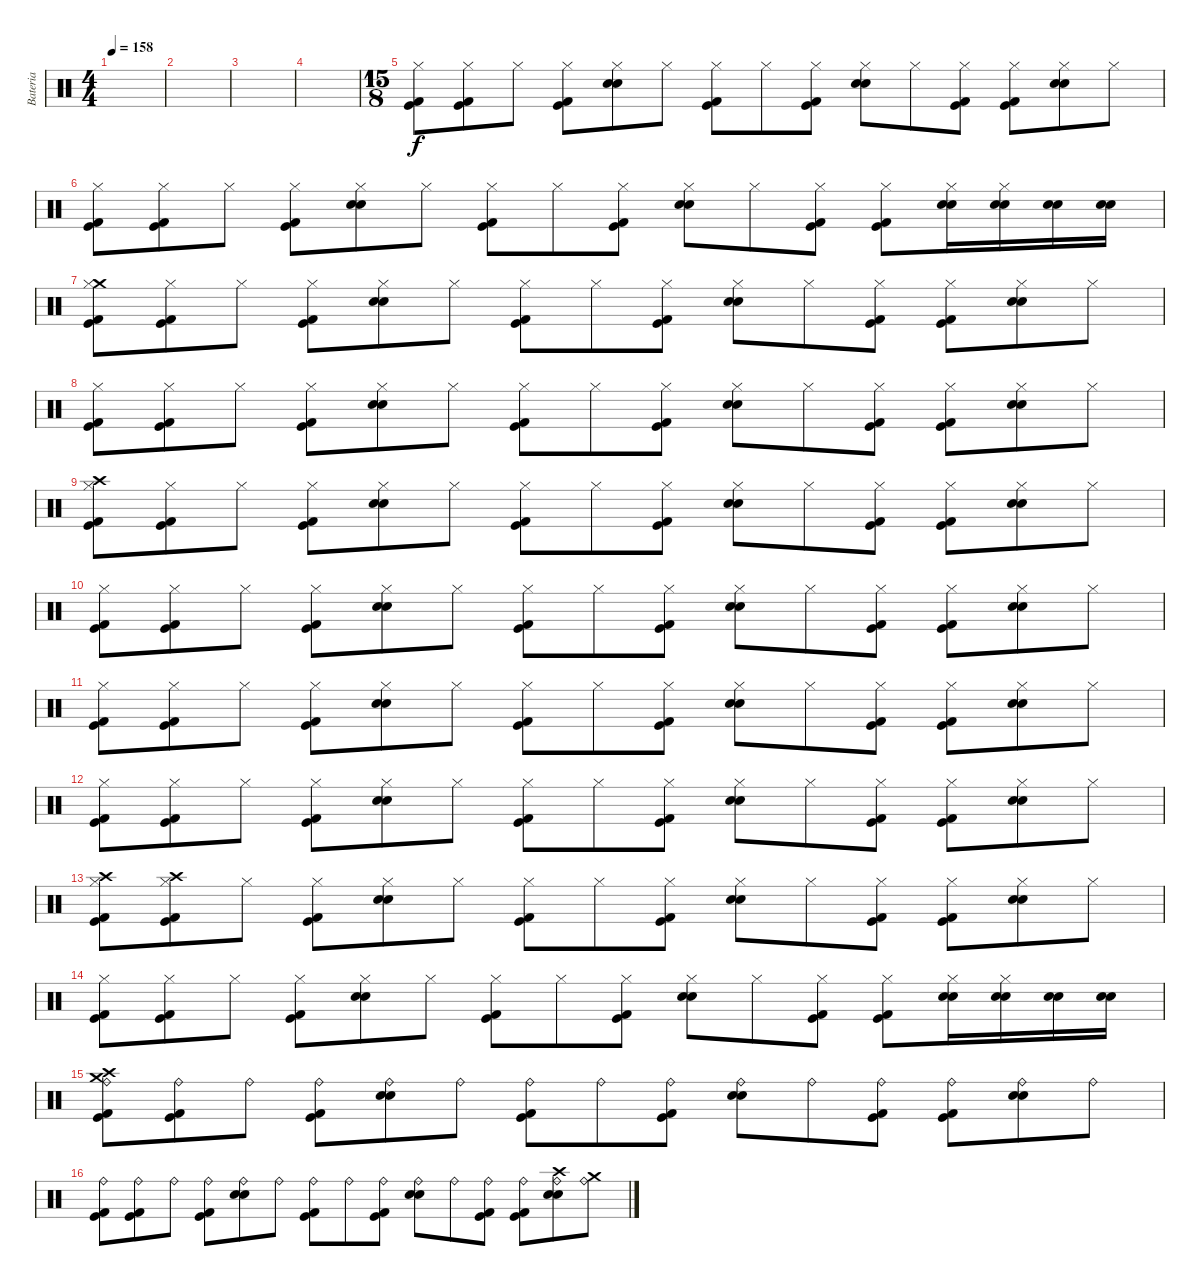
\track ("Bateria" "Bateria") {instrument percussion}
\staff {score}
\articulation defaults
\ts (4 4)
\tempo 158
\clef neutral
\ks c
|
|
|
|
\ts (15 8)
("Hi-Hat (closed)" "Kick (hit) 2" "Kick (hit)").8 ("Hi-Hat (closed)" "Kick (hit) 2" "Kick (hit)").8 "Hi-Hat (closed)".8 ("Hi-Hat (closed)" "Kick (hit) 2" "Kick (hit)").8 ("Hi-Hat (closed)" "Electric Snare (hit)" "Snare (hit) 2").8 "Hi-Hat (closed)".8 ("Hi-Hat (closed)" "Kick (hit) 2" "Kick (hit)").8 "Hi-Hat (closed)".8 ("Hi-Hat (closed)" "Kick (hit) 2" "Kick (hit)").8 ("Hi-Hat (closed)" "Electric Snare (hit)" "Snare (hit) 2").8 "Hi-Hat (closed)".8 ("Hi-Hat (closed)" "Kick (hit) 2" "Kick (hit)").8 ("Hi-Hat (closed)" "Kick (hit) 2" "Kick (hit)").8 ("Hi-Hat (closed)" "Electric Snare (hit)" "Snare (hit) 2").8 "Hi-Hat (closed)".8 |
("Hi-Hat (closed)" "Kick (hit) 2" "Kick (hit)").8 ("Hi-Hat (closed)" "Kick (hit) 2" "Kick (hit)").8 "Hi-Hat (closed)".8 ("Hi-Hat (closed)" "Kick (hit) 2" "Kick (hit)").8 ("Hi-Hat (closed)" "Electric Snare (hit)" "Snare (hit) 2").8 "Hi-Hat (closed)".8 ("Hi-Hat (closed)" "Kick (hit) 2" "Kick (hit)").8 "Hi-Hat (closed)".8 ("Hi-Hat (closed)" "Kick (hit) 2" "Kick (hit)").8 ("Hi-Hat (closed)" "Electric Snare (hit)" "Snare (hit) 2").8 "Hi-Hat (closed)".8 ("Hi-Hat (closed)" "Kick (hit) 2" "Kick (hit)").8 ("Hi-Hat (closed)" "Kick (hit) 2" "Kick (hit)").8 ("Hi-Hat (closed)" "Electric Snare (hit)" "Snare (hit) 2").16 ("Hi-Hat (closed)" "Electric Snare (hit)" "Snare (hit) 2").16 ("Electric Snare (hit)" "Snare (hit) 2").16 ("Electric Snare (hit)" "Snare (hit) 2").16 |
("Crash medium (hit)" "Hi-Hat (closed)" "Kick (hit) 2" "Kick (hit)").8 ("Hi-Hat (closed)" "Kick (hit) 2" "Kick (hit)").8 "Hi-Hat (closed)".8 ("Hi-Hat (closed)" "Kick (hit) 2" "Kick (hit)").8 ("Hi-Hat (closed)" "Electric Snare (hit)" "Snare (hit) 2").8 "Hi-Hat (closed)".8 ("Hi-Hat (closed)" "Kick (hit) 2" "Kick (hit)").8 "Hi-Hat (closed)".8 ("Hi-Hat (closed)" "Kick (hit) 2" "Kick (hit)").8 ("Hi-Hat (closed)" "Electric Snare (hit)" "Snare (hit) 2").8 "Hi-Hat (closed)".8 ("Hi-Hat (closed)" "Kick (hit) 2" "Kick (hit)").8 ("Hi-Hat (closed)" "Kick (hit) 2" "Kick (hit)").8 ("Hi-Hat (closed)" "Electric Snare (hit)" "Snare (hit) 2").8 "Hi-Hat (closed)".8 |
("Hi-Hat (closed)" "Kick (hit) 2" "Kick (hit)").8 ("Hi-Hat (closed)" "Kick (hit) 2" "Kick (hit)").8 "Hi-Hat (closed)".8 ("Hi-Hat (closed)" "Kick (hit) 2" "Kick (hit)").8 ("Hi-Hat (closed)" "Electric Snare (hit)" "Snare (hit) 2").8 "Hi-Hat (closed)".8 ("Hi-Hat (closed)" "Kick (hit) 2" "Kick (hit)").8 "Hi-Hat (closed)".8 ("Hi-Hat (closed)" "Kick (hit) 2" "Kick (hit)").8 ("Hi-Hat (closed)" "Electric Snare (hit)" "Snare (hit) 2").8 "Hi-Hat (closed)".8 ("Hi-Hat (closed)" "Kick (hit) 2" "Kick (hit)").8 ("Hi-Hat (closed)" "Kick (hit) 2" "Kick (hit)").8 ("Hi-Hat (closed)" "Electric Snare (hit)" "Snare (hit) 2").8 "Hi-Hat (closed)".8 |
("Crash high (hit)" "Hi-Hat (closed)" "Kick (hit) 2" "Kick (hit)").8 ("Hi-Hat (closed)" "Kick (hit) 2" "Kick (hit)").8 "Hi-Hat (closed)".8 ("Hi-Hat (closed)" "Kick (hit) 2" "Kick (hit)").8 ("Hi-Hat (closed)" "Electric Snare (hit)" "Snare (hit) 2").8 "Hi-Hat (closed)".8 ("Hi-Hat (closed)" "Kick (hit) 2" "Kick (hit)").8 "Hi-Hat (closed)".8 ("Hi-Hat (closed)" "Kick (hit) 2" "Kick (hit)").8 ("Hi-Hat (closed)" "Electric Snare (hit)" "Snare (hit) 2").8 "Hi-Hat (closed)".8 ("Hi-Hat (closed)" "Kick (hit) 2" "Kick (hit)").8 ("Hi-Hat (closed)" "Kick (hit) 2" "Kick (hit)").8 ("Hi-Hat (closed)" "Electric Snare (hit)" "Snare (hit) 2").8 "Hi-Hat (closed)".8 |
("Hi-Hat (closed)" "Kick (hit) 2" "Kick (hit)").8 ("Hi-Hat (closed)" "Kick (hit) 2" "Kick (hit)").8 "Hi-Hat (closed)".8 ("Hi-Hat (closed)" "Kick (hit) 2" "Kick (hit)").8 ("Hi-Hat (closed)" "Electric Snare (hit)" "Snare (hit) 2").8 "Hi-Hat (closed)".8 ("Hi-Hat (closed)" "Kick (hit) 2" "Kick (hit)").8 "Hi-Hat (closed)".8 ("Hi-Hat (closed)" "Kick (hit) 2" "Kick (hit)").8 ("Hi-Hat (closed)" "Electric Snare (hit)" "Snare (hit) 2").8 "Hi-Hat (closed)".8 ("Hi-Hat (closed)" "Kick (hit) 2" "Kick (hit)").8 ("Hi-Hat (closed)" "Kick (hit) 2" "Kick (hit)").8 ("Hi-Hat (closed)" "Electric Snare (hit)" "Snare (hit) 2").8 "Hi-Hat (closed)".8 |
("Hi-Hat (closed)" "Kick (hit) 2" "Kick (hit)").8 ("Hi-Hat (closed)" "Kick (hit) 2" "Kick (hit)").8 "Hi-Hat (closed)".8 ("Hi-Hat (closed)" "Kick (hit) 2" "Kick (hit)").8 ("Hi-Hat (closed)" "Electric Snare (hit)" "Snare (hit) 2").8 "Hi-Hat (closed)".8 ("Hi-Hat (closed)" "Kick (hit) 2" "Kick (hit)").8 "Hi-Hat (closed)".8 ("Hi-Hat (closed)" "Kick (hit) 2" "Kick (hit)").8 ("Hi-Hat (closed)" "Electric Snare (hit)" "Snare (hit) 2").8 "Hi-Hat (closed)".8 ("Hi-Hat (closed)" "Kick (hit) 2" "Kick (hit)").8 ("Hi-Hat (closed)" "Kick (hit) 2" "Kick (hit)").8 ("Hi-Hat (closed)" "Electric Snare (hit)" "Snare (hit) 2").8 "Hi-Hat (closed)".8 |
("Hi-Hat (closed)" "Kick (hit) 2" "Kick (hit)").8 ("Hi-Hat (closed)" "Kick (hit) 2" "Kick (hit)").8 "Hi-Hat (closed)".8 ("Hi-Hat (closed)" "Kick (hit) 2" "Kick (hit)").8 ("Hi-Hat (closed)" "Electric Snare (hit)" "Snare (hit) 2").8 "Hi-Hat (closed)".8 ("Hi-Hat (closed)" "Kick (hit) 2" "Kick (hit)").8 "Hi-Hat (closed)".8 ("Hi-Hat (closed)" "Kick (hit) 2" "Kick (hit)").8 ("Hi-Hat (closed)" "Electric Snare (hit)" "Snare (hit) 2").8 "Hi-Hat (closed)".8 ("Hi-Hat (closed)" "Kick (hit) 2" "Kick (hit)").8 ("Hi-Hat (closed)" "Kick (hit) 2" "Kick (hit)").8 ("Hi-Hat (closed)" "Electric Snare (hit)" "Snare (hit) 2").8 "Hi-Hat (closed)".8 |
("Crash high (hit)" "Hi-Hat (closed)" "Kick (hit) 2" "Kick (hit)").8 ("Crash high (hit)" "Hi-Hat (closed)" "Kick (hit) 2" "Kick (hit)").8 "Hi-Hat (closed)".8 ("Hi-Hat (closed)" "Kick (hit) 2" "Kick (hit)").8 ("Hi-Hat (closed)" "Electric Snare (hit)" "Snare (hit) 2").8 "Hi-Hat (closed)".8 ("Hi-Hat (closed)" "Kick (hit) 2" "Kick (hit)").8 "Hi-Hat (closed)".8 ("Hi-Hat (closed)" "Kick (hit) 2" "Kick (hit)").8 ("Hi-Hat (closed)" "Electric Snare (hit)" "Snare (hit) 2").8 "Hi-Hat (closed)".8 ("Hi-Hat (closed)" "Kick (hit) 2" "Kick (hit)").8 ("Hi-Hat (closed)" "Kick (hit) 2" "Kick (hit)").8 ("Hi-Hat (closed)" "Electric Snare (hit)" "Snare (hit) 2").8 "Hi-Hat (closed)".8 |
("Hi-Hat (closed)" "Kick (hit) 2" "Kick (hit)").8 ("Hi-Hat (closed)" "Kick (hit) 2" "Kick (hit)").8 "Hi-Hat (closed)".8 ("Hi-Hat (closed)" "Kick (hit) 2" "Kick (hit)").8 ("Hi-Hat (closed)" "Electric Snare (hit)" "Snare (hit) 2").8 "Hi-Hat (closed)".8 ("Hi-Hat (closed)" "Kick (hit) 2" "Kick (hit)").8 "Hi-Hat (closed)".8 ("Hi-Hat (closed)" "Kick (hit) 2" "Kick (hit)").8 ("Hi-Hat (closed)" "Electric Snare (hit)" "Snare (hit) 2").8 "Hi-Hat (closed)".8 ("Hi-Hat (closed)" "Kick (hit) 2" "Kick (hit)").8 ("Hi-Hat (closed)" "Kick (hit) 2" "Kick (hit)").8 ("Hi-Hat (closed)" "Electric Snare (hit)" "Snare (hit) 2").16 ("Hi-Hat (closed)" "Electric Snare (hit)" "Snare (hit) 2").16 ("Electric Snare (hit)" "Snare (hit) 2").16 ("Electric Snare (hit)" "Snare (hit) 2").16 |
("Crash high (hit)" "Ride (bell)" "Kick (hit) 2" "Kick (hit)" "Crash medium (hit)").8 ("Ride (bell)" "Kick (hit) 2" "Kick (hit)").8 "Ride (bell)".8 ("Ride (bell)" "Kick (hit) 2" "Kick (hit)").8 ("Ride (bell)" "Electric Snare (hit)" "Snare (hit) 2").8 "Ride (bell)".8 ("Ride (bell)" "Kick (hit) 2" "Kick (hit)").8 "Ride (bell)".8 ("Ride (bell)" "Kick (hit) 2" "Kick (hit)").8 ("Ride (bell)" "Electric Snare (hit)" "Snare (hit) 2").8 "Ride (bell)".8 ("Ride (bell)" "Kick (hit) 2" "Kick (hit)").8 ("Ride (bell)" "Kick (hit) 2" "Kick (hit)").8 ("Ride (bell)" "Electric Snare (hit)" "Snare (hit) 2").8 "Ride (bell)".8 |
("Ride (bell)" "Kick (hit) 2" "Kick (hit)").8 ("Ride (bell)" "Kick (hit) 2" "Kick (hit)").8 "Ride (bell)".8 ("Ride (bell)" "Kick (hit) 2" "Kick (hit)").8 ("Ride (bell)" "Electric Snare (hit)" "Snare (hit) 2").8 "Ride (bell)".8 ("Ride (bell)" "Kick (hit) 2" "Kick (hit)").8 "Ride (bell)".8 ("Ride (bell)" "Kick (hit) 2" "Kick (hit)").8 ("Ride (bell)" "Electric Snare (hit)" "Snare (hit) 2").8 "Ride (bell)".8 ("Ride (bell)" "Kick (hit) 2" "Kick (hit)").8 ("Ride (bell)" "Kick (hit) 2" "Kick (hit)").8 ("Crash high (hit)" "Ride (bell)" "Electric Snare (hit)" "Snare (hit) 2").8 ("Crash medium (hit)" "Ride (bell)").8
